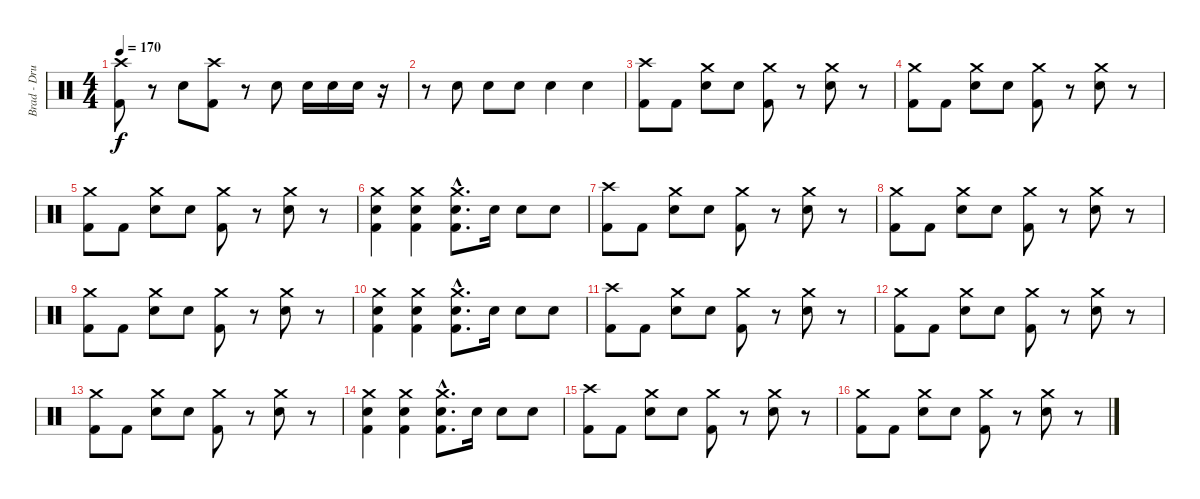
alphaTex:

\track ("Brad - Drums" "Brad - Dru") {instrument percussion}
\staff {score}
\articulation defaults
\ts (4 4)
\tempo 170
\clef neutral
\ks c
("Crash high (hit)" "Kick (hit) 2").8{dy f} r.8 "Electric Snare (hit)".8 ("Crash high (hit)" "Kick (hit) 2").8 r.8 "Electric Snare (hit)".8 "Electric Snare (hit)".16 "Electric Snare (hit)".16 "Electric Snare (hit)".16 r.16 |
r.8 "Electric Snare (hit)".8 "Electric Snare (hit)".8 "Electric Snare (hit)".8 "Electric Snare (hit)".4 "Electric Snare (hit)".4 |
("Crash high (hit)" "Kick (hit) 2").8 "Kick (hit) 2".8 ("Crash medium (hit)" "Electric Snare (hit)").8 "Electric Snare (hit)".8 ("Crash medium (hit)" "Kick (hit) 2").8 r.8 ("Crash medium (hit)" "Electric Snare (hit)").8 r.8 |
("Crash medium (hit)" "Kick (hit) 2").8 "Kick (hit) 2".8 ("Crash medium (hit)" "Electric Snare (hit)").8 "Electric Snare (hit)".8 ("Crash medium (hit)" "Kick (hit) 2").8 r.8 ("Crash medium (hit)" "Electric Snare (hit)").8 r.8 |
("Crash medium (hit)" "Kick (hit) 2").8 "Kick (hit) 2".8 ("Crash medium (hit)" "Electric Snare (hit)").8 "Electric Snare (hit)".8 ("Crash medium (hit)" "Kick (hit) 2").8 r.8 ("Crash medium (hit)" "Electric Snare (hit)").8 r.8 |
("Crash medium (hit)" "Electric Snare (hit)" "Kick (hit) 2").4 ("Crash medium (hit)" "Electric Snare (hit)" "Kick (hit) 2").4 ("Crash medium (hit)"{hac} "Electric Snare (hit)"{hac} "Kick (hit) 2"{hac}).8{d} "Electric Snare (hit)".16 "Electric Snare (hit)".8 "Electric Snare (hit)".8 |
("Crash high (hit)" "Kick (hit) 2").8 "Kick (hit) 2".8 ("Crash medium (hit)" "Electric Snare (hit)").8 "Electric Snare (hit)".8 ("Crash medium (hit)" "Kick (hit) 2").8 r.8 ("Crash medium (hit)" "Electric Snare (hit)").8 r.8 |
("Crash medium (hit)" "Kick (hit) 2").8 "Kick (hit) 2".8 ("Crash medium (hit)" "Electric Snare (hit)").8 "Electric Snare (hit)".8 ("Crash medium (hit)" "Kick (hit) 2").8 r.8 ("Crash medium (hit)" "Electric Snare (hit)").8 r.8 |
("Crash medium (hit)" "Kick (hit) 2").8 "Kick (hit) 2".8 ("Crash medium (hit)" "Electric Snare (hit)").8 "Electric Snare (hit)".8 ("Crash medium (hit)" "Kick (hit) 2").8 r.8 ("Crash medium (hit)" "Electric Snare (hit)").8 r.8 |
("Crash medium (hit)" "Electric Snare (hit)" "Kick (hit) 2").4 ("Crash medium (hit)" "Electric Snare (hit)" "Kick (hit) 2").4 ("Crash medium (hit)"{hac} "Electric Snare (hit)"{hac} "Kick (hit) 2"{hac}).8{d} "Electric Snare (hit)".16 "Electric Snare (hit)".8 "Electric Snare (hit)".8 |
("Crash high (hit)" "Kick (hit) 2").8 "Kick (hit) 2".8 ("Crash medium (hit)" "Electric Snare (hit)").8 "Electric Snare (hit)".8 ("Crash medium (hit)" "Kick (hit) 2").8 r.8 ("Crash medium (hit)" "Electric Snare (hit)").8 r.8 |
("Crash medium (hit)" "Kick (hit) 2").8 "Kick (hit) 2".8 ("Crash medium (hit)" "Electric Snare (hit)").8 "Electric Snare (hit)".8 ("Crash medium (hit)" "Kick (hit) 2").8 r.8 ("Crash medium (hit)" "Electric Snare (hit)").8 r.8 |
("Crash medium (hit)" "Kick (hit) 2").8 "Kick (hit) 2".8 ("Crash medium (hit)" "Electric Snare (hit)").8 "Electric Snare (hit)".8 ("Crash medium (hit)" "Kick (hit) 2").8 r.8 ("Crash medium (hit)" "Electric Snare (hit)").8 r.8 |
("Crash medium (hit)" "Electric Snare (hit)" "Kick (hit) 2").4 ("Crash medium (hit)" "Electric Snare (hit)" "Kick (hit) 2").4 ("Crash medium (hit)"{hac} "Electric Snare (hit)"{hac} "Kick (hit) 2"{hac}).8{d} "Electric Snare (hit)".16 "Electric Snare (hit)".8 "Electric Snare (hit)".8 |
("Crash high (hit)" "Kick (hit) 2").8 "Kick (hit) 2".8 ("Crash medium (hit)" "Electric Snare (hit)").8 "Electric Snare (hit)".8 ("Crash medium (hit)" "Kick (hit) 2").8 r.8 ("Crash medium (hit)" "Electric Snare (hit)").8 r.8 |
("Crash medium (hit)" "Kick (hit) 2").8 "Kick (hit) 2".8 ("Crash medium (hit)" "Electric Snare (hit)").8 "Electric Snare (hit)".8 ("Crash medium (hit)" "Kick (hit) 2").8 r.8 ("Crash medium (hit)" "Electric Snare (hit)").8 r.8
